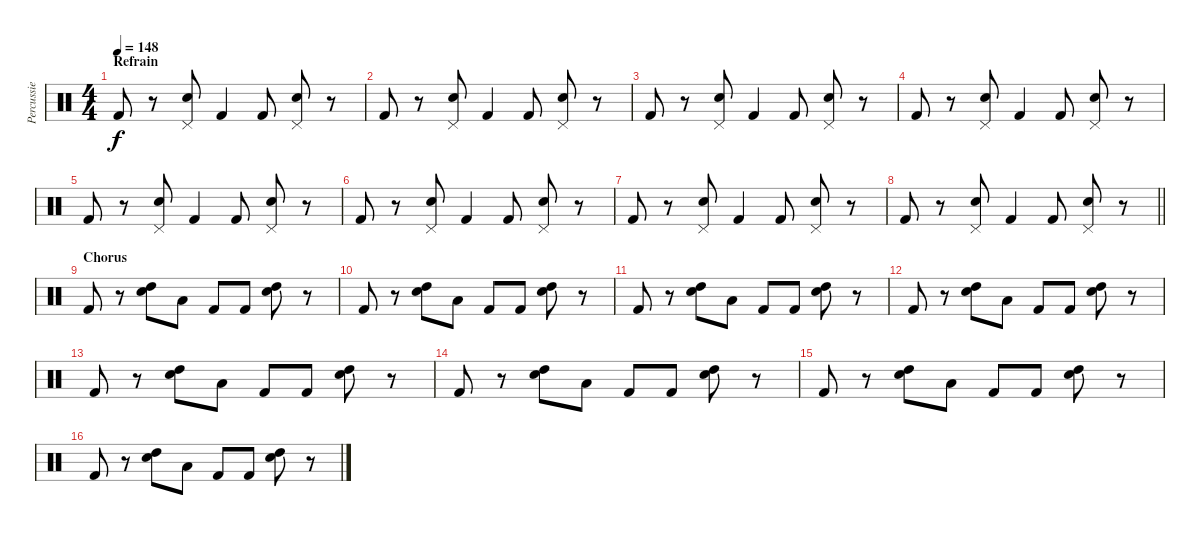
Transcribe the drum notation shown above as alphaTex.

\track ("Percussie" "Percussie") {instrument percussion}
\staff {score}
\articulation defaults
\ts (4 4)
\section ("" "Refrain")
\tempo 148
\clef neutral
\ks c "Kick (hit) 2".8{dy f}
r.8 ("Pedal Hi-Hat (hit)" "Electric Snare (hit)").8 "Kick (hit) 2".4 "Kick (hit) 2".8 ("Pedal Hi-Hat (hit)" "Electric Snare (hit)").8 r.8 |
"Kick (hit) 2".8 r.8 ("Pedal Hi-Hat (hit)" "Electric Snare (hit)").8 "Kick (hit) 2".4 "Kick (hit) 2".8 ("Pedal Hi-Hat (hit)" "Electric Snare (hit)").8 r.8 |
"Kick (hit) 2".8 r.8 ("Pedal Hi-Hat (hit)" "Electric Snare (hit)").8 "Kick (hit) 2".4 "Kick (hit) 2".8 ("Pedal Hi-Hat (hit)" "Electric Snare (hit)").8 r.8 |
"Kick (hit) 2".8 r.8 ("Pedal Hi-Hat (hit)" "Electric Snare (hit)").8 "Kick (hit) 2".4 "Kick (hit) 2".8 ("Pedal Hi-Hat (hit)" "Electric Snare (hit)").8 r.8 |
"Kick (hit) 2".8 r.8 ("Pedal Hi-Hat (hit)" "Electric Snare (hit)").8 "Kick (hit) 2".4 "Kick (hit) 2".8 ("Pedal Hi-Hat (hit)" "Electric Snare (hit)").8 r.8 |
"Kick (hit) 2".8 r.8 ("Pedal Hi-Hat (hit)" "Electric Snare (hit)").8 "Kick (hit) 2".4 "Kick (hit) 2".8 ("Pedal Hi-Hat (hit)" "Electric Snare (hit)").8 r.8 |
"Kick (hit) 2".8 r.8 ("Pedal Hi-Hat (hit)" "Electric Snare (hit)").8 "Kick (hit) 2".4 "Kick (hit) 2".8 ("Pedal Hi-Hat (hit)" "Electric Snare (hit)").8 r.8 |
\barLineRight lightlight "Kick (hit) 2".8
r.8 ("Pedal Hi-Hat (hit)" "Electric Snare (hit)").8 "Kick (hit) 2".4 "Kick (hit) 2".8 ("Pedal Hi-Hat (hit)" "Electric Snare (hit)").8 r.8 |
\section ("" "Chorus")
"Kick (hit) 2".8 r.8 ("Electric Snare (hit)" "High Tom (hit)").8 "Low Tom (hit)".8 "Kick (hit) 2".8 "Kick (hit) 2".8 ("Electric Snare (hit)" "High Tom (hit)").8 r.8 |
"Kick (hit) 2".8 r.8 ("Electric Snare (hit)" "High Tom (hit)").8 "Low Tom (hit)".8 "Kick (hit) 2".8 "Kick (hit) 2".8 ("Electric Snare (hit)" "High Tom (hit)").8 r.8 |
"Kick (hit) 2".8 r.8 ("Electric Snare (hit)" "High Tom (hit)").8 "Low Tom (hit)".8 "Kick (hit) 2".8 "Kick (hit) 2".8 ("Electric Snare (hit)" "High Tom (hit)").8 r.8 |
"Kick (hit) 2".8 r.8 ("Electric Snare (hit)" "High Tom (hit)").8 "Low Tom (hit)".8 "Kick (hit) 2".8 "Kick (hit) 2".8 ("Electric Snare (hit)" "High Tom (hit)").8 r.8 |
"Kick (hit) 2".8 r.8 ("Electric Snare (hit)" "High Tom (hit)").8 "Low Tom (hit)".8 "Kick (hit) 2".8 "Kick (hit) 2".8 ("Electric Snare (hit)" "High Tom (hit)").8 r.8 |
"Kick (hit) 2".8 r.8 ("Electric Snare (hit)" "High Tom (hit)").8 "Low Tom (hit)".8 "Kick (hit) 2".8 "Kick (hit) 2".8 ("Electric Snare (hit)" "High Tom (hit)").8 r.8 |
"Kick (hit) 2".8 r.8 ("Electric Snare (hit)" "High Tom (hit)").8 "Low Tom (hit)".8 "Kick (hit) 2".8 "Kick (hit) 2".8 ("Electric Snare (hit)" "High Tom (hit)").8 r.8 |
"Kick (hit) 2".8 r.8 ("Electric Snare (hit)" "High Tom (hit)").8 "Low Tom (hit)".8 "Kick (hit) 2".8 "Kick (hit) 2".8 ("Electric Snare (hit)" "High Tom (hit)").8 r.8
